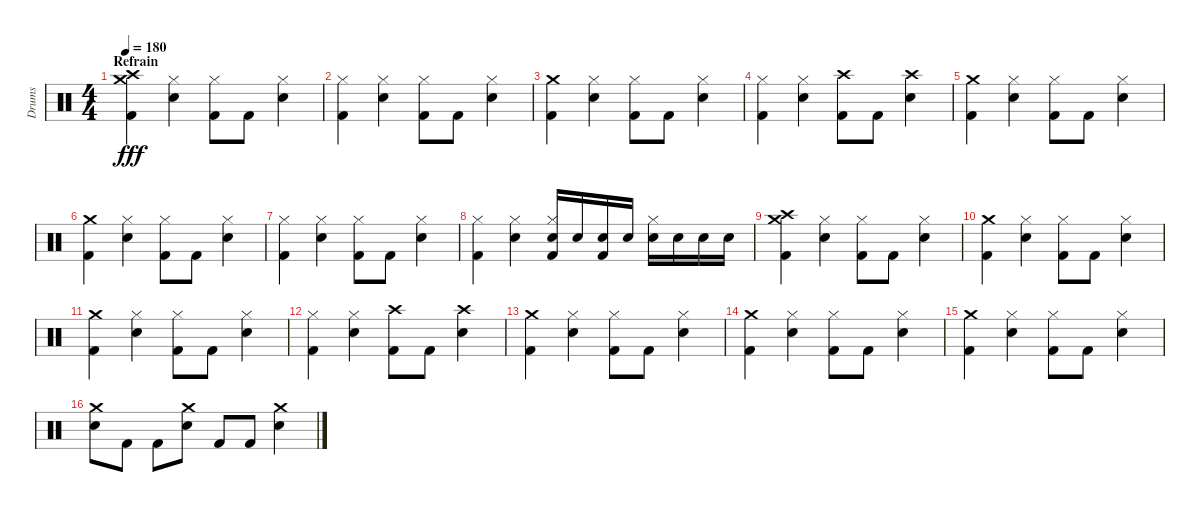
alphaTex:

\track ("Drums" "Drums") {instrument percussion}
\staff {score}
\articulation defaults
\ts (4 4)
\section ("" "Refrain")
\tempo 180
\clef neutral
\ks c
("Crash medium (hit)" "Crash high (hit)" "Kick (hit) 2").4{dy fff} ("Hi-Hat (closed)" "Electric Snare (hit)").4 ("Hi-Hat (closed)" "Kick (hit) 2").8 "Kick (hit) 2".8 ("Hi-Hat (closed)" "Electric Snare (hit)").4 |
("Hi-Hat (closed)" "Kick (hit) 2").4 ("Hi-Hat (closed)" "Electric Snare (hit)").4 ("Hi-Hat (closed)" "Kick (hit) 2").8 "Kick (hit) 2".8 ("Hi-Hat (closed)" "Electric Snare (hit)").4 |
("Crash medium (hit)" "Kick (hit) 2").4 ("Hi-Hat (closed)" "Electric Snare (hit)").4 ("Hi-Hat (closed)" "Kick (hit) 2").8 "Kick (hit) 2".8 ("Hi-Hat (closed)" "Electric Snare (hit)").4 |
("Hi-Hat (closed)" "Kick (hit) 2").4 ("Hi-Hat (closed)" "Electric Snare (hit)").4 ("Crash high (hit)" "Kick (hit) 2").8 "Kick (hit) 2".8 ("Crash high (hit)" "Electric Snare (hit)").4 |
("Crash medium (hit)" "Kick (hit) 2").4 ("Hi-Hat (closed)" "Electric Snare (hit)").4 ("Hi-Hat (closed)" "Kick (hit) 2").8 "Kick (hit) 2".8 ("Hi-Hat (closed)" "Electric Snare (hit)").4 |
("Crash medium (hit)" "Kick (hit) 2").4 ("Hi-Hat (closed)" "Electric Snare (hit)").4 ("Hi-Hat (closed)" "Kick (hit) 2").8 "Kick (hit) 2".8 ("Hi-Hat (closed)" "Electric Snare (hit)").4 |
("Hi-Hat (closed)" "Kick (hit) 2").4 ("Hi-Hat (closed)" "Electric Snare (hit)").4 ("Hi-Hat (closed)" "Kick (hit) 2").8 "Kick (hit) 2".8 ("Hi-Hat (closed)" "Electric Snare (hit)").4 |
("Hi-Hat (closed)" "Kick (hit) 2").4 ("Hi-Hat (closed)" "Electric Snare (hit)").4 ("Hi-Hat (closed)" "Kick (hit) 2" "Electric Snare (hit)").16 "Electric Snare (hit)".16 ("Kick (hit) 2" "Electric Snare (hit)").16 "Electric Snare (hit)".16 ("Hi-Hat (closed)" "Electric Snare (hit)").16 "Electric Snare (hit)".16 "Electric Snare (hit)".16 "Electric Snare (hit)".16 |
("Crash medium (hit)" "Crash high (hit)" "Kick (hit) 2").4 ("Hi-Hat (closed)" "Electric Snare (hit)").4 ("Hi-Hat (closed)" "Kick (hit) 2").8 "Kick (hit) 2".8 ("Hi-Hat (closed)" "Electric Snare (hit)").4 |
("Crash medium (hit)" "Kick (hit) 2").4 ("Hi-Hat (closed)" "Electric Snare (hit)").4 ("Hi-Hat (closed)" "Kick (hit) 2").8 "Kick (hit) 2".8 ("Hi-Hat (closed)" "Electric Snare (hit)").4 |
("Crash medium (hit)" "Kick (hit) 2").4 ("Hi-Hat (closed)" "Electric Snare (hit)").4 ("Hi-Hat (closed)" "Kick (hit) 2").8 "Kick (hit) 2".8 ("Hi-Hat (closed)" "Electric Snare (hit)").4 |
("Hi-Hat (closed)" "Kick (hit) 2").4 ("Hi-Hat (closed)" "Electric Snare (hit)").4 ("Crash high (hit)" "Kick (hit) 2").8 "Kick (hit) 2".8 ("Crash high (hit)" "Electric Snare (hit)").4 |
("Crash medium (hit)" "Kick (hit) 2").4 ("Hi-Hat (closed)" "Electric Snare (hit)").4 ("Hi-Hat (closed)" "Kick (hit) 2").8 "Kick (hit) 2".8 ("Hi-Hat (closed)" "Electric Snare (hit)").4 |
("Crash medium (hit)" "Kick (hit) 2").4 ("Hi-Hat (closed)" "Electric Snare (hit)").4 ("Hi-Hat (closed)" "Kick (hit) 2").8 "Kick (hit) 2".8 ("Hi-Hat (closed)" "Electric Snare (hit)").4 |
("Crash medium (hit)" "Kick (hit) 2").4 ("Hi-Hat (closed)" "Electric Snare (hit)").4 ("Hi-Hat (closed)" "Kick (hit) 2").8 "Kick (hit) 2".8 ("Hi-Hat (closed)" "Electric Snare (hit)").4 |
("Crash medium (hit)" "Electric Snare (hit)").8 "Kick (hit) 2".8 "Kick (hit) 2".8 ("Crash medium (hit)" "Electric Snare (hit)").8 "Kick (hit) 2".8 "Kick (hit) 2".8 ("Crash medium (hit)" "Electric Snare (hit)").4
